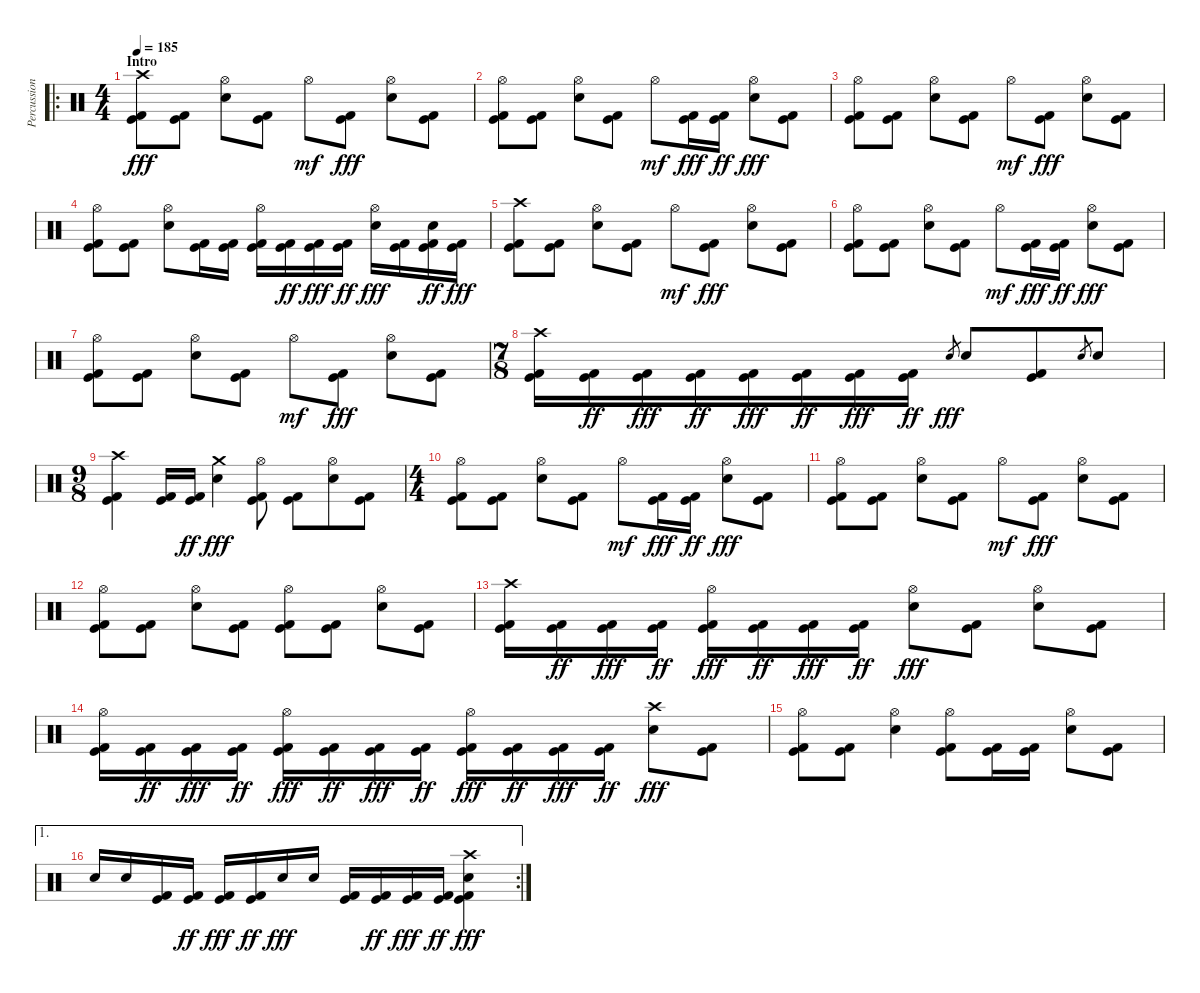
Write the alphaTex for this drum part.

\track ("Percussion" "Percussion") {instrument percussion}
\staff {score}
\articulation defaults
\ro
\ts (4 4)
\section ("" "Intro")
\tempo 185
\clef neutral
\ks c
("Crash high (hit)" "Kick (hit)" "Kick (hit) 2").8{dy fff} ("Kick (hit)" "Kick (hit) 2").8 ("Hi-Hat (open)" "Snare (hit) 2").8 ("Kick (hit)" "Kick (hit) 2").8 "Hi-Hat (open)".8{dy mf} ("Kick (hit)" "Kick (hit) 2").8{dy fff} ("Hi-Hat (open)" "Snare (hit) 2").8 ("Kick (hit)" "Kick (hit) 2").8 |
("Hi-Hat (open)" "Kick (hit)" "Kick (hit) 2").8 ("Kick (hit)" "Kick (hit) 2").8 ("Hi-Hat (open)" "Snare (hit) 2").8 ("Kick (hit)" "Kick (hit) 2").8 "Hi-Hat (open)".8{dy mf} ("Kick (hit)" "Kick (hit) 2").16{dy fff} ("Kick (hit)" "Kick (hit) 2").16{dy ff} ("Hi-Hat (open)" "Snare (hit) 2").8{dy fff} ("Kick (hit)" "Kick (hit) 2").8 |
("Hi-Hat (open)" "Kick (hit)" "Kick (hit) 2").8 ("Kick (hit)" "Kick (hit) 2").8 ("Hi-Hat (open)" "Snare (hit) 2").8 ("Kick (hit)" "Kick (hit) 2").8 "Hi-Hat (open)".8{dy mf} ("Kick (hit)" "Kick (hit) 2").8{dy fff} ("Hi-Hat (open)" "Snare (hit) 2").8 ("Kick (hit)" "Kick (hit) 2").8 |
("Hi-Hat (open)" "Kick (hit)" "Kick (hit) 2").8 ("Kick (hit)" "Kick (hit) 2").8 ("Hi-Hat (open)" "Snare (hit) 2").8 ("Kick (hit)" "Kick (hit) 2").16 ("Kick (hit)" "Kick (hit) 2").16 ("Hi-Hat (open)" "Kick (hit)" "Kick (hit) 2").16 ("Kick (hit)" "Kick (hit) 2").16{dy ff} ("Kick (hit)" "Kick (hit) 2").16{dy fff} ("Kick (hit)" "Kick (hit) 2").16{dy ff} ("Hi-Hat (open)" "Snare (hit) 2").16{dy fff} ("Kick (hit)" "Kick (hit) 2").16 ("Snare (hit) 2" "Kick (hit)" "Kick (hit) 2").16{dy ff} ("Kick (hit)" "Kick (hit) 2").16{dy fff} |
("Crash high (hit)" "Kick (hit)" "Kick (hit) 2").8 ("Kick (hit)" "Kick (hit) 2").8 ("Hi-Hat (open)" "Snare (hit) 2").8 ("Kick (hit)" "Kick (hit) 2").8 "Hi-Hat (open)".8{dy mf} ("Kick (hit)" "Kick (hit) 2").8{dy fff} ("Hi-Hat (open)" "Snare (hit) 2").8 ("Kick (hit)" "Kick (hit) 2").8 |
("Hi-Hat (open)" "Kick (hit)" "Kick (hit) 2").8 ("Kick (hit)" "Kick (hit) 2").8 ("Hi-Hat (open)" "Snare (hit) 2").8 ("Kick (hit)" "Kick (hit) 2").8 "Hi-Hat (open)".8{dy mf} ("Kick (hit)" "Kick (hit) 2").16{dy fff} ("Kick (hit)" "Kick (hit) 2").16{dy ff} ("Hi-Hat (open)" "Snare (hit) 2").8{dy fff} ("Kick (hit)" "Kick (hit) 2").8 |
("Hi-Hat (open)" "Kick (hit)" "Kick (hit) 2").8 ("Kick (hit)" "Kick (hit) 2").8 ("Hi-Hat (open)" "Snare (hit) 2").8 ("Kick (hit)" "Kick (hit) 2").8 "Hi-Hat (open)".8{dy mf} ("Kick (hit)" "Kick (hit) 2").8{dy fff} ("Hi-Hat (open)" "Snare (hit) 2").8 ("Kick (hit)" "Kick (hit) 2").8 |
\ts (7 8)
("Crash high (hit)" "Kick (hit)" "Kick (hit) 2").16 ("Kick (hit)" "Kick (hit) 2").16{dy ff} ("Kick (hit)" "Kick (hit) 2").16{dy fff} ("Kick (hit)" "Kick (hit) 2").16{dy ff} ("Kick (hit)" "Kick (hit) 2").16{dy fff} ("Kick (hit)" "Kick (hit) 2").16{dy ff} ("Kick (hit)" "Kick (hit) 2").16{dy fff} ("Kick (hit)" "Kick (hit) 2").16{dy ff} "Snare (hit) 2".8{gr dy fff} "Snare (hit) 2".8 ("Kick (hit)" "Kick (hit) 2").8 "Snare (hit) 2".8{gr} "Snare (hit) 2".8 |
\ts (9 8)
("Crash high (hit)" "Kick (hit)" "Kick (hit) 2").4 ("Kick (hit)" "Kick (hit) 2").16 ("Kick (hit)" "Kick (hit) 2").16{dy ff} ("Crash medium (hit)" "Snare (hit) 2").4{dy fff} ("Hi-Hat (open)" "Kick (hit)" "Kick (hit) 2").8 ("Kick (hit)" "Kick (hit) 2").8 ("Hi-Hat (open)" "Snare (hit) 2").8 ("Kick (hit)" "Kick (hit) 2").8 |
\ts (4 4)
("Hi-Hat (open)" "Kick (hit)" "Kick (hit) 2").8 ("Kick (hit)" "Kick (hit) 2").8 ("Hi-Hat (open)" "Snare (hit) 2").8 ("Kick (hit)" "Kick (hit) 2").8 "Hi-Hat (open)".8{dy mf} ("Kick (hit)" "Kick (hit) 2").16{dy fff} ("Kick (hit)" "Kick (hit) 2").16{dy ff} ("Hi-Hat (open)" "Snare (hit) 2").8{dy fff} ("Kick (hit)" "Kick (hit) 2").8 |
("Hi-Hat (open)" "Kick (hit)" "Kick (hit) 2").8 ("Kick (hit)" "Kick (hit) 2").8 ("Hi-Hat (open)" "Snare (hit) 2").8 ("Kick (hit)" "Kick (hit) 2").8 "Hi-Hat (open)".8{dy mf} ("Kick (hit)" "Kick (hit) 2").8{dy fff} ("Hi-Hat (open)" "Snare (hit) 2").8 ("Kick (hit)" "Kick (hit) 2").8 |
("Hi-Hat (open)" "Kick (hit)" "Kick (hit) 2").8 ("Kick (hit)" "Kick (hit) 2").8 ("Hi-Hat (open)" "Snare (hit) 2").8 ("Kick (hit)" "Kick (hit) 2").8 ("Hi-Hat (open)" "Kick (hit)" "Kick (hit) 2").8 ("Kick (hit)" "Kick (hit) 2").8 ("Hi-Hat (open)" "Snare (hit) 2").8 ("Kick (hit)" "Kick (hit) 2").8 |
("Crash high (hit)" "Kick (hit)" "Kick (hit) 2").16 ("Kick (hit)" "Kick (hit) 2").16{dy ff} ("Kick (hit)" "Kick (hit) 2").16{dy fff} ("Kick (hit)" "Kick (hit) 2").16{dy ff} ("Hi-Hat (open)" "Kick (hit)" "Kick (hit) 2").16{dy fff} ("Kick (hit)" "Kick (hit) 2").16{dy ff} ("Kick (hit)" "Kick (hit) 2").16{dy fff} ("Kick (hit)" "Kick (hit) 2").16{dy ff} ("Hi-Hat (open)" "Snare (hit) 2").8{dy fff} ("Kick (hit)" "Kick (hit) 2").8 ("Hi-Hat (open)" "Snare (hit) 2").8 ("Kick (hit)" "Kick (hit) 2").8 |
("Hi-Hat (open)" "Kick (hit)" "Kick (hit) 2").16 ("Kick (hit)" "Kick (hit) 2").16{dy ff} ("Kick (hit)" "Kick (hit) 2").16{dy fff} ("Kick (hit)" "Kick (hit) 2").16{dy ff} ("Hi-Hat (open)" "Kick (hit)" "Kick (hit) 2").16{dy fff} ("Kick (hit)" "Kick (hit) 2").16{dy ff} ("Kick (hit)" "Kick (hit) 2").16{dy fff} ("Kick (hit)" "Kick (hit) 2").16{dy ff} ("Hi-Hat (open)" "Kick (hit)" "Kick (hit) 2").16{dy fff} ("Kick (hit)" "Kick (hit) 2").16{dy ff} ("Kick (hit)" "Kick (hit) 2").16{dy fff} ("Kick (hit)" "Kick (hit) 2").16{dy ff} ("Crash high (hit)" "Snare (hit) 2").8{dy fff} ("Kick (hit)" "Kick (hit) 2").8 |
("Hi-Hat (open)" "Kick (hit)" "Kick (hit) 2").8 ("Kick (hit)" "Kick (hit) 2").8 ("Hi-Hat (open)" "Snare (hit) 2").4 ("Hi-Hat (open)" "Kick (hit)" "Kick (hit) 2").8 ("Kick (hit)" "Kick (hit) 2").16 ("Kick (hit)" "Kick (hit) 2").16 ("Hi-Hat (open)" "Snare (hit) 2").8 ("Kick (hit)" "Kick (hit) 2").8 |
\ae 1
\rc 2 "Snare (hit) 2".16 "Snare (hit) 2".16
("Kick (hit)" "Kick (hit) 2").16 ("Kick (hit)" "Kick (hit) 2").16{dy ff} ("Kick (hit)" "Kick (hit) 2").16{dy fff} ("Kick (hit)" "Kick (hit) 2").16{dy ff} "Snare (hit) 2".16{dy fff} "Snare (hit) 2".16 ("Kick (hit)" "Kick (hit) 2").16 ("Kick (hit)" "Kick (hit) 2").16{dy ff} ("Kick (hit)" "Kick (hit) 2").16{dy fff} ("Kick (hit)" "Kick (hit) 2").16{dy ff} ("Crash high (hit)" "Snare (hit) 2" "Kick (hit)" "Kick (hit) 2").4{dy fff}
